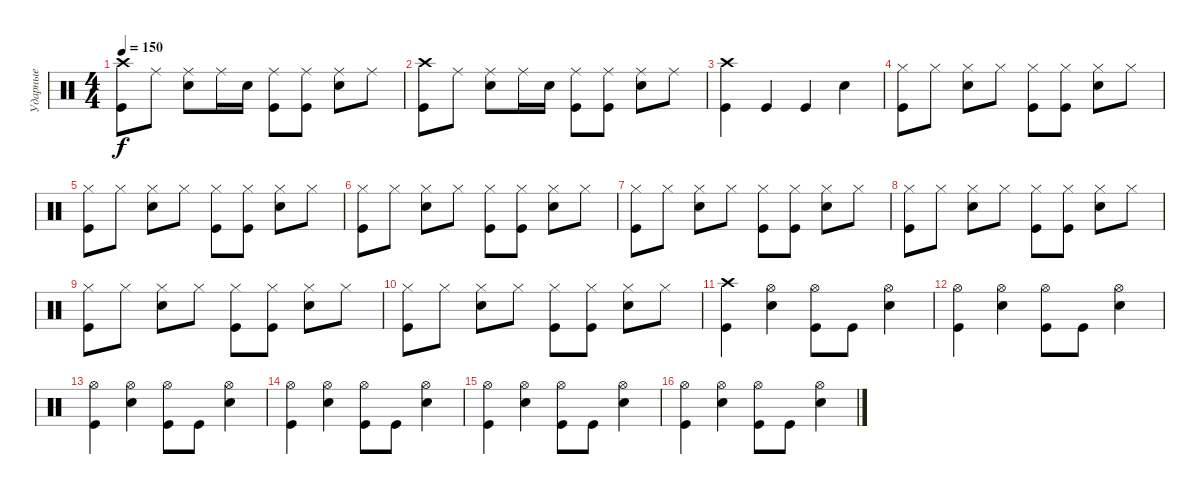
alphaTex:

\track ("Ударные" "Ударные") {instrument percussion}
\staff {score}
\articulation defaults
\ts (4 4)
\tempo 150
\clef neutral
\ks c
("Crash high (hit)" "Kick (hit)").8{dy f} "Ride (middle)".8 ("Ride (middle)" "Snare (hit) 2").8 "Ride (middle)".16 "Snare (hit) 2".16 ("Ride (middle)" "Kick (hit)").8 ("Ride (middle)" "Kick (hit)").8 ("Ride (middle)" "Snare (hit) 2").8 "Ride (middle)".8 |
("Crash high (hit)" "Kick (hit)").8 "Ride (middle)".8 ("Ride (middle)" "Snare (hit) 2").8 "Ride (middle)".16 "Snare (hit) 2".16 ("Ride (middle)" "Kick (hit)").8 ("Ride (middle)" "Kick (hit)").8 ("Ride (middle)" "Snare (hit) 2").8 "Ride (middle)".8 |
("Crash high (hit)" "Kick (hit)").4 "Kick (hit)".4 "Kick (hit)".4 "Snare (hit) 2".4 |
("Hi-Hat (closed)" "Kick (hit)").8 "Hi-Hat (closed)".8 ("Hi-Hat (closed)" "Snare (hit) 2").8 "Hi-Hat (closed)".8 ("Hi-Hat (closed)" "Kick (hit)").8 ("Hi-Hat (closed)" "Kick (hit)").8 ("Hi-Hat (closed)" "Snare (hit) 2").8 "Hi-Hat (closed)".8 |
("Hi-Hat (closed)" "Kick (hit)").8 "Hi-Hat (closed)".8 ("Hi-Hat (closed)" "Snare (hit) 2").8 "Hi-Hat (closed)".8 ("Hi-Hat (closed)" "Kick (hit)").8 ("Hi-Hat (closed)" "Kick (hit)").8 ("Hi-Hat (closed)" "Snare (hit) 2").8 "Hi-Hat (closed)".8 |
("Hi-Hat (closed)" "Kick (hit)").8 "Hi-Hat (closed)".8 ("Hi-Hat (closed)" "Snare (hit) 2").8 "Hi-Hat (closed)".8 ("Hi-Hat (closed)" "Kick (hit)").8 ("Hi-Hat (closed)" "Kick (hit)").8 ("Hi-Hat (closed)" "Snare (hit) 2").8 "Hi-Hat (closed)".8 |
("Hi-Hat (closed)" "Kick (hit)").8 "Hi-Hat (closed)".8 ("Hi-Hat (closed)" "Snare (hit) 2").8 "Hi-Hat (closed)".8 ("Hi-Hat (closed)" "Kick (hit)").8 ("Hi-Hat (closed)" "Kick (hit)").8 ("Hi-Hat (closed)" "Snare (hit) 2").8 "Hi-Hat (closed)".8 |
("Hi-Hat (closed)" "Kick (hit)").8 "Hi-Hat (closed)".8 ("Hi-Hat (closed)" "Snare (hit) 2").8 "Hi-Hat (closed)".8 ("Hi-Hat (closed)" "Kick (hit)").8 ("Hi-Hat (closed)" "Kick (hit)").8 ("Hi-Hat (closed)" "Snare (hit) 2").8 "Hi-Hat (closed)".8 |
("Hi-Hat (closed)" "Kick (hit)").8 "Hi-Hat (closed)".8 ("Hi-Hat (closed)" "Snare (hit) 2").8 "Hi-Hat (closed)".8 ("Hi-Hat (closed)" "Kick (hit)").8 ("Hi-Hat (closed)" "Kick (hit)").8 ("Hi-Hat (closed)" "Snare (hit) 2").8 "Hi-Hat (closed)".8 |
("Hi-Hat (closed)" "Kick (hit)").8 "Hi-Hat (closed)".8 ("Hi-Hat (closed)" "Snare (hit) 2").8 "Hi-Hat (closed)".8 ("Hi-Hat (closed)" "Kick (hit)").8 ("Hi-Hat (closed)" "Kick (hit)").8 ("Hi-Hat (closed)" "Snare (hit) 2").8 "Hi-Hat (closed)".8 |
("Crash high (hit)" "Kick (hit)").4 ("Hi-Hat (open)" "Snare (hit) 2").4 ("Hi-Hat (open)" "Kick (hit)").8 "Kick (hit)".8 ("Hi-Hat (open)" "Snare (hit) 2").4 |
("Hi-Hat (open)" "Kick (hit)").4 ("Hi-Hat (open)" "Snare (hit) 2").4 ("Hi-Hat (open)" "Kick (hit)").8 "Kick (hit)".8 ("Hi-Hat (open)" "Snare (hit) 2").4 |
("Hi-Hat (open)" "Kick (hit)").4 ("Hi-Hat (open)" "Snare (hit) 2").4 ("Hi-Hat (open)" "Kick (hit)").8 "Kick (hit)".8 ("Hi-Hat (open)" "Snare (hit) 2").4 |
("Hi-Hat (open)" "Kick (hit)").4 ("Hi-Hat (open)" "Snare (hit) 2").4 ("Hi-Hat (open)" "Kick (hit)").8 "Kick (hit)".8 ("Hi-Hat (open)" "Snare (hit) 2").4 |
("Hi-Hat (open)" "Kick (hit)").4 ("Hi-Hat (open)" "Snare (hit) 2").4 ("Hi-Hat (open)" "Kick (hit)").8 "Kick (hit)".8 ("Hi-Hat (open)" "Snare (hit) 2").4 |
("Hi-Hat (open)" "Kick (hit)").4 ("Hi-Hat (open)" "Snare (hit) 2").4 ("Hi-Hat (open)" "Kick (hit)").8 "Kick (hit)".8 ("Hi-Hat (open)" "Snare (hit) 2").4
